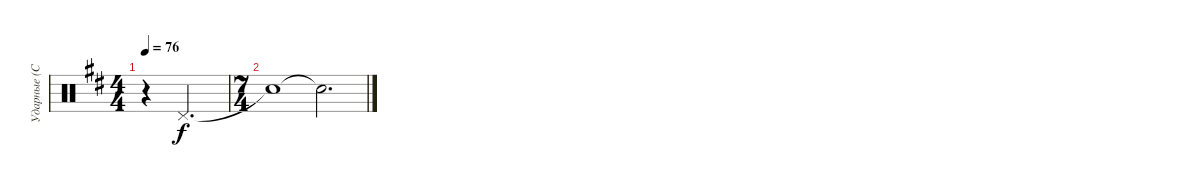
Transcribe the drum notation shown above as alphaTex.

\track ("Ударные (С.Кавагое)" "Ударные (С") {instrument percussion}
\staff {score}
\articulation defaults
\ts (4 4)
\tempo 76
\clef neutral
\ks bminor
r.4{dy f} "Pedal Hi-Hat (hit)".2{d} |
\ts (7 4)
"Snare (hit)"{t}.1 "Snare (hit)"{t}.2{d}
